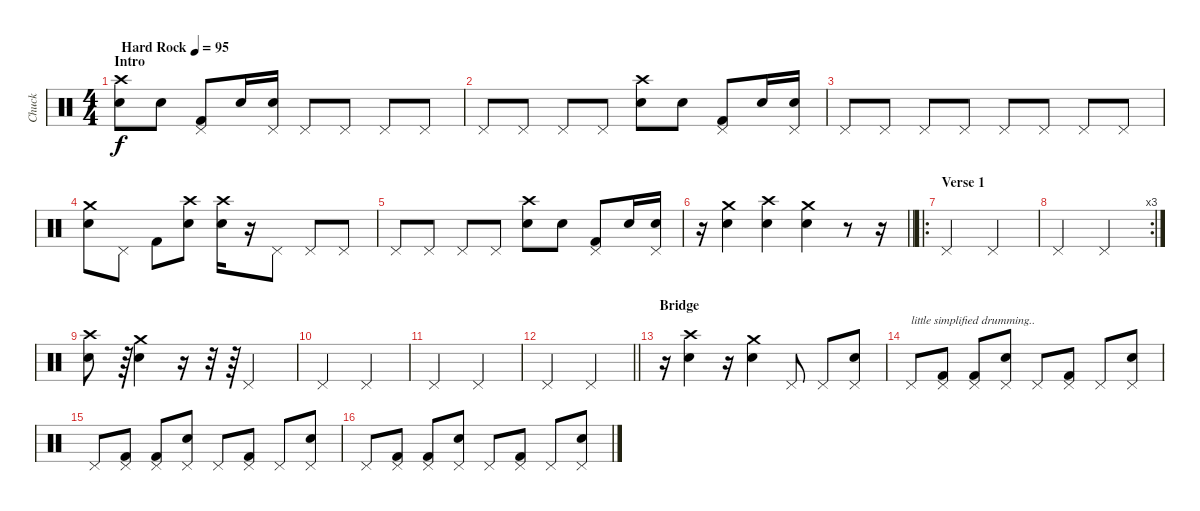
\track ("Chuck" "Chuck") {instrument percussion}
\staff {score}
\articulation defaults
\ts (4 4)
\section ("" "Intro")
\tempo (95 "Hard Rock")
\clef neutral
\ks c
("Crash high (hit)" "Electric Snare (hit)").8{dy f} "Snare (hit) 2".8 ("Pedal Hi-Hat (hit)" "Kick (hit) 2").8 "Snare (hit) 2".16 ("Pedal Hi-Hat (hit)" "Snare (hit) 2").16 "Pedal Hi-Hat (hit)".8 "Pedal Hi-Hat (hit)".8 "Pedal Hi-Hat (hit)".8 "Pedal Hi-Hat (hit)".8 |
"Pedal Hi-Hat (hit)".8 "Pedal Hi-Hat (hit)".8 "Pedal Hi-Hat (hit)".8 "Pedal Hi-Hat (hit)".8 ("Crash high (hit)" "Electric Snare (hit)").8 "Snare (hit) 2".8 ("Pedal Hi-Hat (hit)" "Kick (hit) 2").8 "Snare (hit) 2".16 ("Pedal Hi-Hat (hit)" "Snare (hit) 2").16 |
"Pedal Hi-Hat (hit)".8 "Pedal Hi-Hat (hit)".8 "Pedal Hi-Hat (hit)".8 "Pedal Hi-Hat (hit)".8 "Pedal Hi-Hat (hit)".8 "Pedal Hi-Hat (hit)".8 "Pedal Hi-Hat (hit)".8 "Pedal Hi-Hat (hit)".8 |
("Crash medium (hit)" "Electric Snare (hit)").8 "Pedal Hi-Hat (hit)".8 "Kick (hit) 2".8 ("Crash high (hit)" "Electric Snare (hit)").8 ("Crash high (hit)" "Snare (hit) 2").16 r.16 "Pedal Hi-Hat (hit)".8 "Pedal Hi-Hat (hit)".8 "Pedal Hi-Hat (hit)".8 |
"Pedal Hi-Hat (hit)".8 "Pedal Hi-Hat (hit)".8 "Pedal Hi-Hat (hit)".8 "Pedal Hi-Hat (hit)".8 ("Crash high (hit)" "Electric Snare (hit)").8 "Snare (hit) 2".8 ("Pedal Hi-Hat (hit)" "Kick (hit) 2").8 "Snare (hit) 2".16 ("Pedal Hi-Hat (hit)" "Snare (hit) 2").16 |
\barLineRight lightlight
r.16 ("Crash medium (hit)" "Snare (hit) 2").4 ("Crash high (hit)" "Snare (hit) 2").4 ("Crash medium (hit)" "Snare (hit) 2").4 r.8 r.16 |
\ro
\section ("" "Verse 1")
"Pedal Hi-Hat (hit)".2 "Pedal Hi-Hat (hit)".2 |
\rc 3 "Pedal Hi-Hat (hit)".2 "Pedal Hi-Hat (hit)".2
|
("Crash high (hit)" "Snare (hit) 2").8 r.64 ("Crash medium (hit)" "Electric Snare (hit)").4 r.16 r.32 r.64 "Pedal Hi-Hat (hit)".2 |
"Pedal Hi-Hat (hit)".2 "Pedal Hi-Hat (hit)".2 |
"Pedal Hi-Hat (hit)".2 "Pedal Hi-Hat (hit)".2 |
\barLineRight lightlight "Pedal Hi-Hat (hit)".2 "Pedal Hi-Hat (hit)".2
|
\section ("" "Bridge")
r.16 ("Crash high (hit)" "Snare (hit) 2").4 r.16 ("Crash medium (hit)" "Snare (hit) 2").4 "Pedal Hi-Hat (hit)".8 "Pedal Hi-Hat (hit)".8 ("Pedal Hi-Hat (hit)" "Snare (hit) 2").8 |
"Pedal Hi-Hat (hit)".8{txt "little simplified drumming.."} ("Pedal Hi-Hat (hit)" "Kick (hit) 2").8 ("Pedal Hi-Hat (hit)" "Kick (hit) 2").8 ("Pedal Hi-Hat (hit)" "Snare (hit) 2").8 "Pedal Hi-Hat (hit)".8 ("Pedal Hi-Hat (hit)" "Kick (hit) 2").8 "Pedal Hi-Hat (hit)".8 ("Pedal Hi-Hat (hit)" "Snare (hit) 2").8 |
"Pedal Hi-Hat (hit)".8 ("Pedal Hi-Hat (hit)" "Kick (hit) 2").8 ("Pedal Hi-Hat (hit)" "Kick (hit) 2").8 ("Pedal Hi-Hat (hit)" "Snare (hit) 2").8 "Pedal Hi-Hat (hit)".8 ("Pedal Hi-Hat (hit)" "Kick (hit) 2").8 "Pedal Hi-Hat (hit)".8 ("Pedal Hi-Hat (hit)" "Snare (hit) 2").8 |
"Pedal Hi-Hat (hit)".8 ("Pedal Hi-Hat (hit)" "Kick (hit) 2").8 ("Pedal Hi-Hat (hit)" "Kick (hit) 2").8 ("Pedal Hi-Hat (hit)" "Snare (hit) 2").8 "Pedal Hi-Hat (hit)".8 ("Pedal Hi-Hat (hit)" "Kick (hit) 2").8 "Pedal Hi-Hat (hit)".8 ("Pedal Hi-Hat (hit)" "Snare (hit) 2").8
